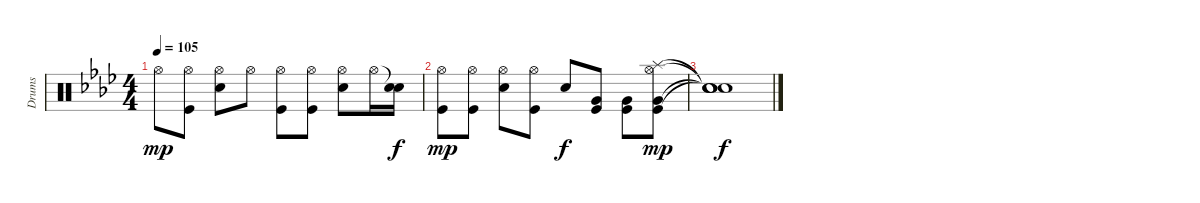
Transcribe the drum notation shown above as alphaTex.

\track ("Drums" "Drums") {instrument percussion}
\staff {score}
\articulation defaults
\ts (4 4)
\tempo 105
\clef neutral
\ks ab "Hi-Hat (open)".8{dy mp}
("Hi-Hat (open)" "Kick (hit)").8 ("Hi-Hat (open)" "Electric Snare (hit)").8 "Hi-Hat (open)".8 ("Hi-Hat (open)" "Kick (hit)").8 ("Hi-Hat (open)" "Kick (hit)").8 ("Hi-Hat (open)" "Electric Snare (hit)").8 "Hi-Hat (open)".16 ("Snare (hit)"{t} "Electric Snare (hit)").16{dy f} |
("Hi-Hat (open)" "Kick (hit)").8{dy mp} ("Hi-Hat (open)" "Kick (hit)").8 ("Hi-Hat (open)" "Electric Snare (hit)").8 ("Hi-Hat (open)" "Kick (hit)").8 "Electric Snare (hit)".8{dy f} ("Very Low Tom (hit)" "Kick (hit)").8 ("Very Low Tom (hit)" "Kick (hit)").8 ("Splash (hit)" "Hi-Hat (open)" "Very Low Tom (hit)" "Kick (hit)").8{dy mp} |
("Snare (hit)"{t} "Snare (hit)"{t} "Snare (hit)"{t} "Snare (hit)"{t}).1{dy f}
